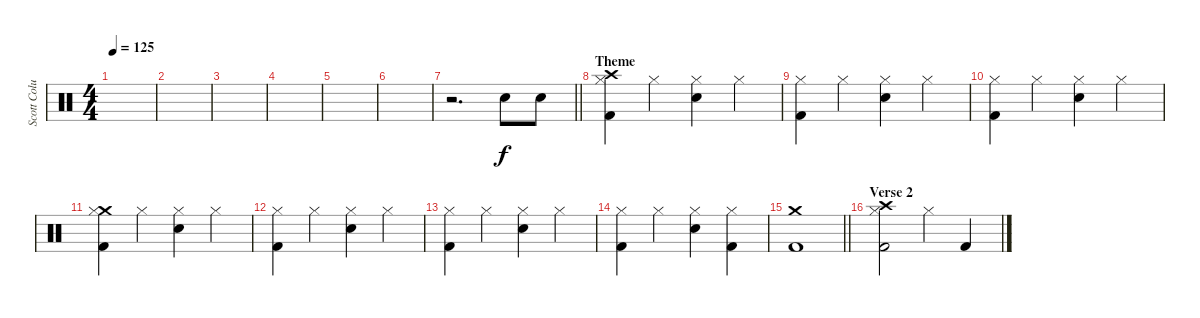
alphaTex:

\track ("Scott Columbus" "Scott Colu") {instrument percussion}
\staff {score}
\articulation defaults
\ts (4 4)
\tempo 125
\clef neutral
\ks c
|
|
|
|
|
|
\barLineRight lightlight
r.2{d} "Snare (hit) 2".8 "Snare (hit) 2".8 |
\section ("" "Theme")
("Crash high (hit)" "Hi-Hat (closed)" "Kick (hit) 2").4 "Hi-Hat (closed)".4 ("Hi-Hat (closed)" "Snare (hit) 2").4 "Hi-Hat (closed)".4 |
("Hi-Hat (closed)" "Kick (hit) 2").4 "Hi-Hat (closed)".4 ("Hi-Hat (closed)" "Snare (hit) 2").4 "Hi-Hat (closed)".4 |
("Hi-Hat (closed)" "Kick (hit) 2").4 "Hi-Hat (closed)".4 ("Hi-Hat (closed)" "Snare (hit) 2").4 "Hi-Hat (closed)".4 |
("Crash medium (hit)" "Hi-Hat (closed)" "Kick (hit) 2").4 "Hi-Hat (closed)".4 ("Hi-Hat (closed)" "Snare (hit) 2").4 "Hi-Hat (closed)".4 |
("Hi-Hat (closed)" "Kick (hit) 2").4 "Hi-Hat (closed)".4 ("Hi-Hat (closed)" "Snare (hit) 2").4 "Hi-Hat (closed)".4 |
("Hi-Hat (closed)" "Kick (hit) 2").4 "Hi-Hat (closed)".4 ("Hi-Hat (closed)" "Snare (hit) 2").4 "Hi-Hat (closed)".4 |
("Hi-Hat (closed)" "Kick (hit) 2").4 "Hi-Hat (closed)".4 ("Hi-Hat (closed)" "Snare (hit) 2").4 ("Hi-Hat (closed)" "Kick (hit) 2").4 |
\barLineRight lightlight
("Crash medium (hit)" "Kick (hit) 2").1 |
\section ("" "Verse 2")
("Crash high (hit)" "Hi-Hat (closed)" "Kick (hit) 2").2 "Hi-Hat (closed)".4 "Kick (hit) 2".4
